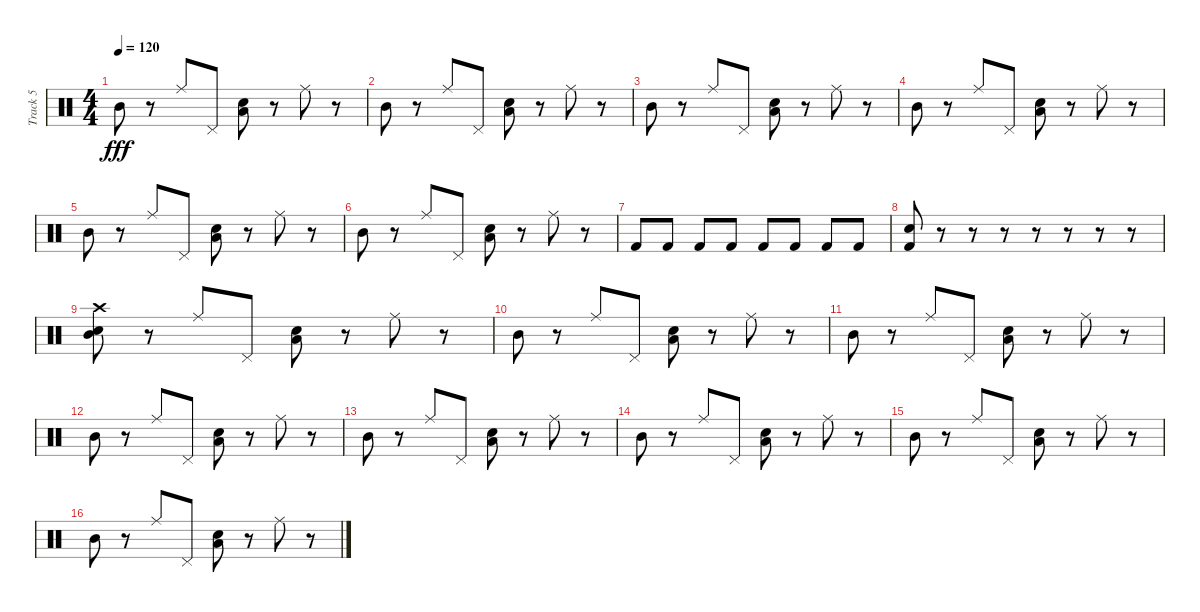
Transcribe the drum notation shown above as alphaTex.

\track ("Track 5" "Track 5") {instrument percussion}
\staff {score}
\articulation defaults
\ts (4 4)
\tempo 120
\clef neutral
\ks c "Mid Tom (hit)".8{dy fff}
r.8 "Ride (middle)".8 "Pedal Hi-Hat (hit)".8 ("Low Tom (hit)" "Snare (hit) 2").8 r.8 "Ride (middle)".8 r.8 |
"Mid Tom (hit)".8 r.8 "Ride (middle)".8 "Pedal Hi-Hat (hit)".8 ("Low Tom (hit)" "Snare (hit) 2").8 r.8 "Ride (middle)".8 r.8 |
"Mid Tom (hit)".8 r.8 "Ride (middle)".8 "Pedal Hi-Hat (hit)".8 ("Low Tom (hit)" "Snare (hit) 2").8 r.8 "Ride (middle)".8 r.8 |
"Mid Tom (hit)".8 r.8 "Ride (middle)".8 "Pedal Hi-Hat (hit)".8 ("Low Tom (hit)" "Snare (hit) 2").8 r.8 "Ride (middle)".8 r.8 |
"Mid Tom (hit)".8 r.8 "Ride (middle)".8 "Pedal Hi-Hat (hit)".8 ("Low Tom (hit)" "Snare (hit) 2").8 r.8 "Ride (middle)".8 r.8 |
"Mid Tom (hit)".8 r.8 "Ride (middle)".8 "Pedal Hi-Hat (hit)".8 ("Low Tom (hit)" "Snare (hit) 2").8 r.8 "Ride (middle)".8 r.8 |
"Kick (hit) 2".8 "Kick (hit) 2".8 "Kick (hit) 2".8 "Kick (hit) 2".8 "Kick (hit) 2".8 "Kick (hit) 2".8 "Kick (hit) 2".8 "Kick (hit) 2".8 |
("Kick (hit) 2" "Snare (hit) 2").8 r.8 r.8 r.8 r.8 r.8 r.8 r.8 |
("Crash high (hit)" "Mid Tom (hit)" "Snare (hit) 2").8 r.8 "Ride (middle)".8 "Pedal Hi-Hat (hit)".8 ("Snare (hit) 2" "Low Tom (hit)").8 r.8 "Ride (middle)".8 r.8 |
"Mid Tom (hit)".8 r.8 "Ride (middle)".8 "Pedal Hi-Hat (hit)".8 ("Low Tom (hit)" "Snare (hit) 2").8 r.8 "Ride (middle)".8 r.8 |
"Mid Tom (hit)".8 r.8 "Ride (middle)".8 "Pedal Hi-Hat (hit)".8 ("Low Tom (hit)" "Snare (hit) 2").8 r.8 "Ride (middle)".8 r.8 |
"Mid Tom (hit)".8 r.8 "Ride (middle)".8 "Pedal Hi-Hat (hit)".8 ("Low Tom (hit)" "Snare (hit) 2").8 r.8 "Ride (middle)".8 r.8 |
"Mid Tom (hit)".8 r.8 "Ride (middle)".8 "Pedal Hi-Hat (hit)".8 ("Low Tom (hit)" "Snare (hit) 2").8 r.8 "Ride (middle)".8 r.8 |
"Mid Tom (hit)".8 r.8 "Ride (middle)".8 "Pedal Hi-Hat (hit)".8 ("Low Tom (hit)" "Snare (hit) 2").8 r.8 "Ride (middle)".8 r.8 |
"Mid Tom (hit)".8 r.8 "Ride (middle)".8 "Pedal Hi-Hat (hit)".8 ("Low Tom (hit)" "Snare (hit) 2").8 r.8 "Ride (middle)".8 r.8 |
"Mid Tom (hit)".8 r.8 "Ride (middle)".8 "Pedal Hi-Hat (hit)".8 ("Low Tom (hit)" "Snare (hit) 2").8 r.8 "Ride (middle)".8 r.8
